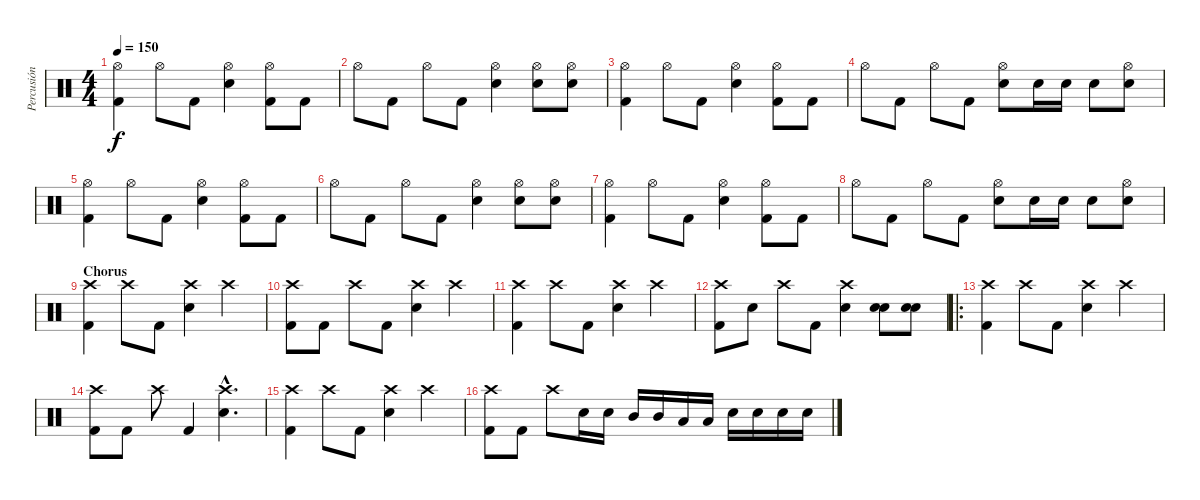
\track ("Percusión" "Percusión") {instrument percussion}
\staff {score}
\articulation defaults
\ts (4 4)
\tempo 150
\clef neutral
\ks c
("Hi-Hat (open)" "Kick (hit) 2").4{dy f} "Hi-Hat (open)".8 "Kick (hit) 2".8 ("Hi-Hat (open)" "Electric Snare (hit)").4 ("Hi-Hat (open)" "Kick (hit) 2").8 "Kick (hit) 2".8 |
"Hi-Hat (open)".8 "Kick (hit) 2".8 "Hi-Hat (open)".8 "Kick (hit) 2".8 ("Hi-Hat (open)" "Electric Snare (hit)").4 ("Hi-Hat (open)" "Electric Snare (hit)").8 ("Hi-Hat (open)" "Electric Snare (hit)").8 |
("Hi-Hat (open)" "Kick (hit) 2").4 "Hi-Hat (open)".8 "Kick (hit) 2".8 ("Hi-Hat (open)" "Electric Snare (hit)").4 ("Hi-Hat (open)" "Kick (hit) 2").8 "Kick (hit) 2".8 |
"Hi-Hat (open)".8 "Kick (hit) 2".8 "Hi-Hat (open)".8 "Kick (hit) 2".8 ("Hi-Hat (open)" "Electric Snare (hit)").8 "Electric Snare (hit)".16 "Electric Snare (hit)".16 "Electric Snare (hit)".8 ("Hi-Hat (open)" "Electric Snare (hit)").8 |
("Hi-Hat (open)" "Kick (hit) 2").4 "Hi-Hat (open)".8 "Kick (hit) 2".8 ("Hi-Hat (open)" "Electric Snare (hit)").4 ("Hi-Hat (open)" "Kick (hit) 2").8 "Kick (hit) 2".8 |
"Hi-Hat (open)".8 "Kick (hit) 2".8 "Hi-Hat (open)".8 "Kick (hit) 2".8 ("Hi-Hat (open)" "Electric Snare (hit)").4 ("Hi-Hat (open)" "Electric Snare (hit)").8 ("Hi-Hat (open)" "Electric Snare (hit)").8 |
("Hi-Hat (open)" "Kick (hit) 2").4 "Hi-Hat (open)".8 "Kick (hit) 2".8 ("Hi-Hat (open)" "Electric Snare (hit)").4 ("Hi-Hat (open)" "Kick (hit) 2").8 "Kick (hit) 2".8 |
"Hi-Hat (open)".8 "Kick (hit) 2".8 "Hi-Hat (open)".8 "Kick (hit) 2".8 ("Hi-Hat (open)" "Electric Snare (hit)").8 "Electric Snare (hit)".16 "Electric Snare (hit)".16 "Electric Snare (hit)".8 ("Hi-Hat (open)" "Electric Snare (hit)").8 |
\section ("" "Chorus")
("Crash high (hit)" "Kick (hit) 2").4 "Crash high (hit)".8 "Kick (hit) 2".8 ("Crash high (hit)" "Electric Snare (hit)").4 "Crash high (hit)".4 |
("Crash high (hit)" "Kick (hit) 2").8 "Kick (hit) 2".8 "Crash high (hit)".8 "Kick (hit) 2".8 ("Crash high (hit)" "Electric Snare (hit)").4 "Crash high (hit)".4 |
("Crash high (hit)" "Kick (hit) 2").4 "Crash high (hit)".8 "Kick (hit) 2".8 ("Crash high (hit)" "Electric Snare (hit)").4 "Crash high (hit)".4 |
("Crash high (hit)" "Kick (hit) 2").8 "Electric Snare (hit)".8 "Crash high (hit)".8 "Kick (hit) 2".8 ("Crash high (hit)" "Electric Snare (hit)").4 ("Electric Snare (hit)" "Electric Snare (hit)").8 ("Electric Snare (hit)" "Electric Snare (hit)").8 |
\ro
("Crash high (hit)" "Kick (hit) 2").4 "Crash high (hit)".8 "Kick (hit) 2".8 ("Crash high (hit)" "Electric Snare (hit)").4 "Crash high (hit)".4 |
("Crash high (hit)" "Kick (hit) 2").8 "Kick (hit) 2".8 "Crash high (hit)".8 "Kick (hit) 2".4 ("Crash high (hit)"{hac} "Electric Snare (hit)"{hac}).4{d} |
("Crash high (hit)" "Kick (hit) 2").4 "Crash high (hit)".8 "Kick (hit) 2".8 ("Crash high (hit)" "Electric Snare (hit)").4 "Crash high (hit)".4 |
("Crash high (hit)" "Kick (hit) 2").8 "Kick (hit) 2".8 "Crash high (hit)".8 "Electric Snare (hit)".16 "Electric Snare (hit)".16 "Mid Tom (hit)".16 "Mid Tom (hit)".16 "Low Tom (hit)".16 "Low Tom (hit)".16 "Electric Snare (hit)".16 "Electric Snare (hit)".16 "Electric Snare (hit)".16 "Electric Snare (hit)".16
